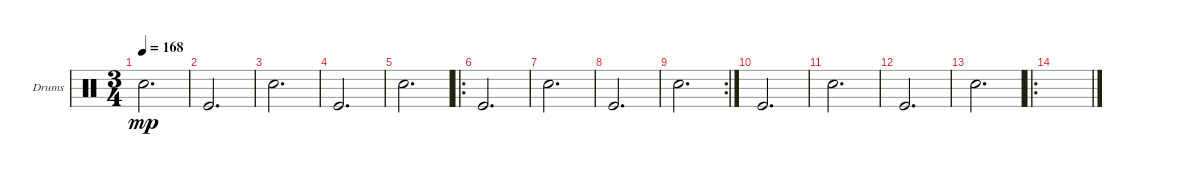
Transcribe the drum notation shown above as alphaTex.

\defaultSystemsLayout 4
\bracketExtendMode groupsimilarinstruments
\firstSystemTrackNameOrientation horizontal
\otherSystemsTrackNameOrientation horizontal
\track ("Drumkit" "Drums") {instrument percussion}
\staff {score}
\articulation defaults
\ts (3 4)
\tempo 168
\clef neutral
\ks c "Snare (hit) 2".2{d dy mp}
|
"Kick (hit)".2{d} |
"Snare (hit) 2".2{d} |
"Kick (hit)".2{d} |
"Snare (hit) 2".2{d} |
\ro "Kick (hit)".2{d}
|
"Snare (hit) 2".2{d} |
"Kick (hit)".2{d} |
\rc 2 "Snare (hit) 2".2{d}
|
"Kick (hit)".2{d} |
"Snare (hit) 2".2{d} |
"Kick (hit)".2{d} |
"Snare (hit) 2".2{d} |
\ro
